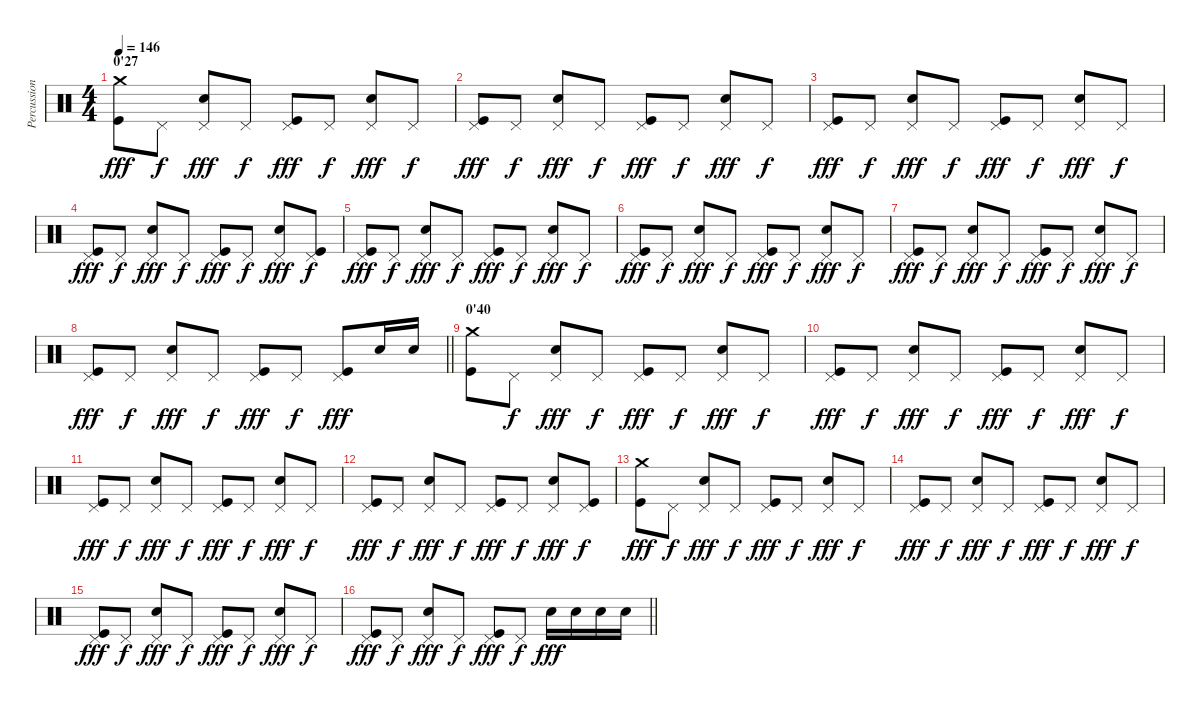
\track ("Percussions" "Percussion") {instrument percussion}
\staff {score}
\articulation defaults
\ts (4 4)
\section ("" "0'27")
\tempo 146
\clef neutral
\ks c
("Crash medium (hit)" "Kick (hit)").8{dy fff} "Pedal Hi-Hat (hit)".8{dy f} ("Pedal Hi-Hat (hit)" "Snare (hit) 2").8{dy fff} "Pedal Hi-Hat (hit)".8{dy f} ("Pedal Hi-Hat (hit)" "Kick (hit)").8{dy fff} "Pedal Hi-Hat (hit)".8{dy f} ("Pedal Hi-Hat (hit)" "Snare (hit) 2").8{dy fff} "Pedal Hi-Hat (hit)".8{dy f} |
("Pedal Hi-Hat (hit)" "Kick (hit)").8{dy fff} "Pedal Hi-Hat (hit)".8{dy f} ("Pedal Hi-Hat (hit)" "Snare (hit) 2").8{dy fff} "Pedal Hi-Hat (hit)".8{dy f} ("Pedal Hi-Hat (hit)" "Kick (hit)").8{dy fff} "Pedal Hi-Hat (hit)".8{dy f} ("Pedal Hi-Hat (hit)" "Snare (hit) 2").8{dy fff} "Pedal Hi-Hat (hit)".8{dy f} |
("Pedal Hi-Hat (hit)" "Kick (hit)").8{dy fff} "Pedal Hi-Hat (hit)".8{dy f} ("Pedal Hi-Hat (hit)" "Snare (hit) 2").8{dy fff} "Pedal Hi-Hat (hit)".8{dy f} ("Pedal Hi-Hat (hit)" "Kick (hit)").8{dy fff} "Pedal Hi-Hat (hit)".8{dy f} ("Pedal Hi-Hat (hit)" "Snare (hit) 2").8{dy fff} "Pedal Hi-Hat (hit)".8{dy f} |
("Pedal Hi-Hat (hit)" "Kick (hit)").8{dy fff} "Pedal Hi-Hat (hit)".8{dy f} ("Pedal Hi-Hat (hit)" "Snare (hit) 2").8{dy fff} "Pedal Hi-Hat (hit)".8{dy f} ("Pedal Hi-Hat (hit)" "Kick (hit)").8{dy fff} "Pedal Hi-Hat (hit)".8{dy f} ("Pedal Hi-Hat (hit)" "Snare (hit) 2").8{dy fff} ("Pedal Hi-Hat (hit)" "Kick (hit)").8{dy f} |
("Pedal Hi-Hat (hit)" "Kick (hit)").8{dy fff} "Pedal Hi-Hat (hit)".8{dy f} ("Pedal Hi-Hat (hit)" "Snare (hit) 2").8{dy fff} "Pedal Hi-Hat (hit)".8{dy f} ("Pedal Hi-Hat (hit)" "Kick (hit)").8{dy fff} "Pedal Hi-Hat (hit)".8{dy f} ("Pedal Hi-Hat (hit)" "Snare (hit) 2").8{dy fff} "Pedal Hi-Hat (hit)".8{dy f} |
("Pedal Hi-Hat (hit)" "Kick (hit)").8{dy fff} "Pedal Hi-Hat (hit)".8{dy f} ("Pedal Hi-Hat (hit)" "Snare (hit) 2").8{dy fff} "Pedal Hi-Hat (hit)".8{dy f} ("Pedal Hi-Hat (hit)" "Kick (hit)").8{dy fff} "Pedal Hi-Hat (hit)".8{dy f} ("Pedal Hi-Hat (hit)" "Snare (hit) 2").8{dy fff} "Pedal Hi-Hat (hit)".8{dy f} |
("Pedal Hi-Hat (hit)" "Kick (hit)").8{dy fff} "Pedal Hi-Hat (hit)".8{dy f} ("Pedal Hi-Hat (hit)" "Snare (hit) 2").8{dy fff} "Pedal Hi-Hat (hit)".8{dy f} ("Pedal Hi-Hat (hit)" "Kick (hit)").8{dy fff} "Pedal Hi-Hat (hit)".8{dy f} ("Pedal Hi-Hat (hit)" "Snare (hit) 2").8{dy fff} "Pedal Hi-Hat (hit)".8{dy f} |
\barLineRight lightlight
("Pedal Hi-Hat (hit)" "Kick (hit)").8{dy fff} "Pedal Hi-Hat (hit)".8{dy f} ("Pedal Hi-Hat (hit)" "Snare (hit) 2").8{dy fff} "Pedal Hi-Hat (hit)".8{dy f} ("Pedal Hi-Hat (hit)" "Kick (hit)").8{dy fff} "Pedal Hi-Hat (hit)".8{dy f} ("Pedal Hi-Hat (hit)" "Kick (hit)").8{dy fff} "Snare (hit) 2".16 "Snare (hit) 2".16 |
\section ("" "0'40")
("Crash medium (hit)" "Kick (hit)").8 "Pedal Hi-Hat (hit)".8{dy f} ("Pedal Hi-Hat (hit)" "Snare (hit) 2").8{dy fff} "Pedal Hi-Hat (hit)".8{dy f} ("Pedal Hi-Hat (hit)" "Kick (hit)").8{dy fff} "Pedal Hi-Hat (hit)".8{dy f} ("Pedal Hi-Hat (hit)" "Snare (hit) 2").8{dy fff} "Pedal Hi-Hat (hit)".8{dy f} |
("Pedal Hi-Hat (hit)" "Kick (hit)").8{dy fff} "Pedal Hi-Hat (hit)".8{dy f} ("Pedal Hi-Hat (hit)" "Snare (hit) 2").8{dy fff} "Pedal Hi-Hat (hit)".8{dy f} ("Pedal Hi-Hat (hit)" "Kick (hit)").8{dy fff} "Pedal Hi-Hat (hit)".8{dy f} ("Pedal Hi-Hat (hit)" "Snare (hit) 2").8{dy fff} "Pedal Hi-Hat (hit)".8{dy f} |
("Pedal Hi-Hat (hit)" "Kick (hit)").8{dy fff} "Pedal Hi-Hat (hit)".8{dy f} ("Pedal Hi-Hat (hit)" "Snare (hit) 2").8{dy fff} "Pedal Hi-Hat (hit)".8{dy f} ("Pedal Hi-Hat (hit)" "Kick (hit)").8{dy fff} "Pedal Hi-Hat (hit)".8{dy f} ("Pedal Hi-Hat (hit)" "Snare (hit) 2").8{dy fff} "Pedal Hi-Hat (hit)".8{dy f} |
("Pedal Hi-Hat (hit)" "Kick (hit)").8{dy fff} "Pedal Hi-Hat (hit)".8{dy f} ("Pedal Hi-Hat (hit)" "Snare (hit) 2").8{dy fff} "Pedal Hi-Hat (hit)".8{dy f} ("Pedal Hi-Hat (hit)" "Kick (hit)").8{dy fff} "Pedal Hi-Hat (hit)".8{dy f} ("Pedal Hi-Hat (hit)" "Snare (hit) 2").8{dy fff} ("Pedal Hi-Hat (hit)" "Kick (hit)").8{dy f} |
("Crash medium (hit)" "Kick (hit)").8{dy fff} "Pedal Hi-Hat (hit)".8{dy f} ("Pedal Hi-Hat (hit)" "Snare (hit) 2").8{dy fff} "Pedal Hi-Hat (hit)".8{dy f} ("Pedal Hi-Hat (hit)" "Kick (hit)").8{dy fff} "Pedal Hi-Hat (hit)".8{dy f} ("Pedal Hi-Hat (hit)" "Snare (hit) 2").8{dy fff} "Pedal Hi-Hat (hit)".8{dy f} |
("Pedal Hi-Hat (hit)" "Kick (hit)").8{dy fff} "Pedal Hi-Hat (hit)".8{dy f} ("Pedal Hi-Hat (hit)" "Snare (hit) 2").8{dy fff} "Pedal Hi-Hat (hit)".8{dy f} ("Pedal Hi-Hat (hit)" "Kick (hit)").8{dy fff} "Pedal Hi-Hat (hit)".8{dy f} ("Pedal Hi-Hat (hit)" "Snare (hit) 2").8{dy fff} "Pedal Hi-Hat (hit)".8{dy f} |
("Pedal Hi-Hat (hit)" "Kick (hit)").8{dy fff} "Pedal Hi-Hat (hit)".8{dy f} ("Pedal Hi-Hat (hit)" "Snare (hit) 2").8{dy fff} "Pedal Hi-Hat (hit)".8{dy f} ("Pedal Hi-Hat (hit)" "Kick (hit)").8{dy fff} "Pedal Hi-Hat (hit)".8{dy f} ("Pedal Hi-Hat (hit)" "Snare (hit) 2").8{dy fff} "Pedal Hi-Hat (hit)".8{dy f} |
\barLineRight lightlight
("Pedal Hi-Hat (hit)" "Kick (hit)").8{dy fff} "Pedal Hi-Hat (hit)".8{dy f} ("Pedal Hi-Hat (hit)" "Snare (hit) 2").8{dy fff} "Pedal Hi-Hat (hit)".8{dy f} ("Pedal Hi-Hat (hit)" "Kick (hit)").8{dy fff} "Pedal Hi-Hat (hit)".8{dy f} "Snare (hit) 2".16{dy fff} "Snare (hit) 2".16 "Snare (hit) 2".16 "Snare (hit) 2".16
